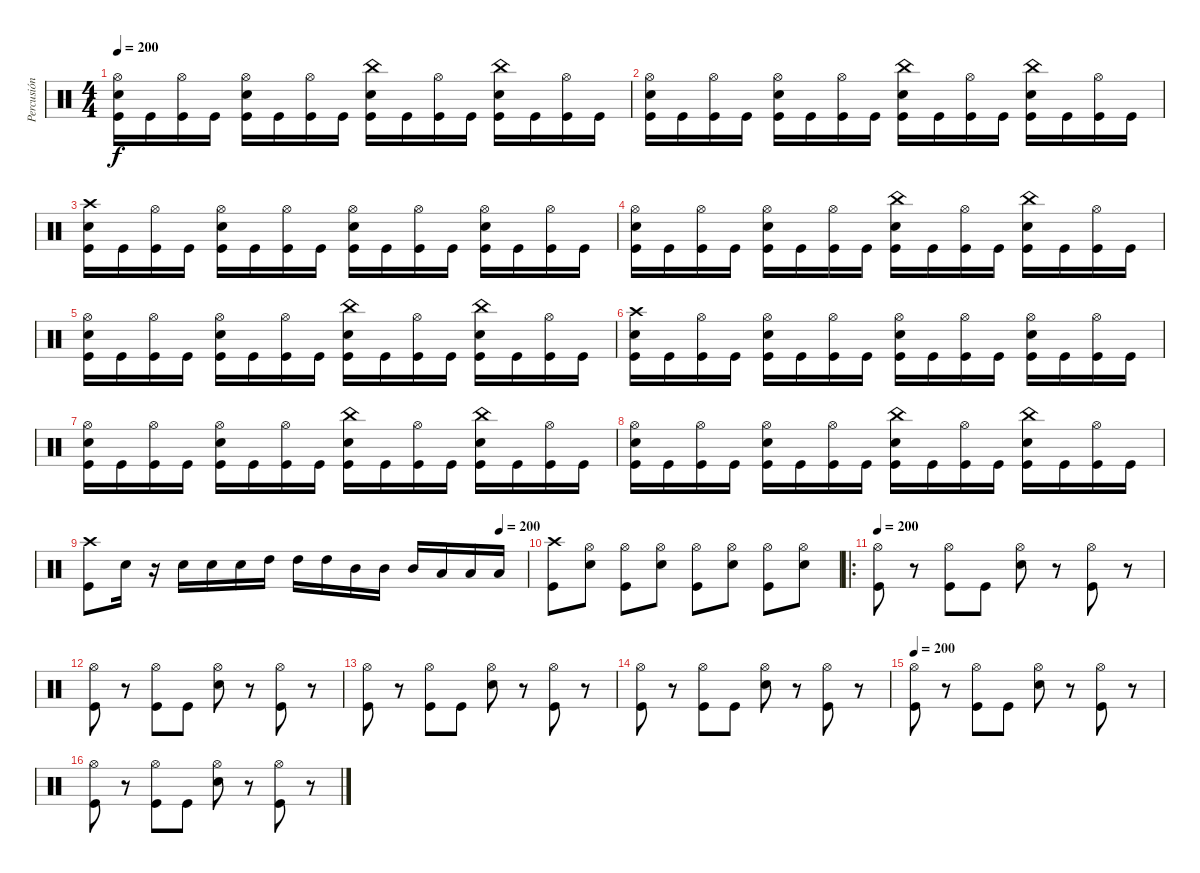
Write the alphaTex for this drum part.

\track ("Percusión" "Percusión") {instrument percussion}
\staff {score}
\articulation defaults
\ts (4 4)
\tempo 200
\clef neutral
\ks c
("Hi-Hat (open)" "Snare (hit) 2" "Kick (hit)").16{dy f} "Kick (hit)".16 ("Hi-Hat (open)" "Kick (hit)").16 "Kick (hit)".16 ("Hi-Hat (open)" "Snare (hit) 2" "Kick (hit)").16 "Kick (hit)".16 ("Hi-Hat (open)" "Kick (hit)").16 "Kick (hit)".16 ("China (hit)" "Snare (hit) 2" "Kick (hit)").16 "Kick (hit)".16 ("Hi-Hat (open)" "Kick (hit)").16 "Kick (hit)".16 ("China (hit)" "Snare (hit) 2" "Kick (hit)").16 "Kick (hit)".16 ("Hi-Hat (open)" "Kick (hit)").16 "Kick (hit)".16 |
("Hi-Hat (open)" "Snare (hit) 2" "Kick (hit)").16 "Kick (hit)".16 ("Hi-Hat (open)" "Kick (hit)").16 "Kick (hit)".16 ("Hi-Hat (open)" "Snare (hit) 2" "Kick (hit)").16 "Kick (hit)".16 ("Hi-Hat (open)" "Kick (hit)").16 "Kick (hit)".16 ("China (hit)" "Snare (hit) 2" "Kick (hit)").16 "Kick (hit)".16 ("Hi-Hat (open)" "Kick (hit)").16 "Kick (hit)".16 ("China (hit)" "Snare (hit) 2" "Kick (hit)").16 "Kick (hit)".16 ("Hi-Hat (open)" "Kick (hit)").16 "Kick (hit)".16 |
("Crash high (hit)" "Snare (hit) 2" "Kick (hit)").16 "Kick (hit)".16 ("Hi-Hat (open)" "Kick (hit)").16 "Kick (hit)".16 ("Hi-Hat (open)" "Snare (hit) 2" "Kick (hit)").16 "Kick (hit)".16 ("Hi-Hat (open)" "Kick (hit)").16 "Kick (hit)".16 ("Hi-Hat (open)" "Snare (hit) 2" "Kick (hit)").16 "Kick (hit)".16 ("Hi-Hat (open)" "Kick (hit)").16 "Kick (hit)".16 ("Hi-Hat (open)" "Snare (hit) 2" "Kick (hit)").16 "Kick (hit)".16 ("Hi-Hat (open)" "Kick (hit)").16 "Kick (hit)".16 |
("Hi-Hat (open)" "Snare (hit) 2" "Kick (hit)").16 "Kick (hit)".16 ("Hi-Hat (open)" "Kick (hit)").16 "Kick (hit)".16 ("Hi-Hat (open)" "Snare (hit) 2" "Kick (hit)").16 "Kick (hit)".16 ("Hi-Hat (open)" "Kick (hit)").16 "Kick (hit)".16 ("China (hit)" "Snare (hit) 2" "Kick (hit)").16 "Kick (hit)".16 ("Hi-Hat (open)" "Kick (hit)").16 "Kick (hit)".16 ("China (hit)" "Snare (hit) 2" "Kick (hit)").16 "Kick (hit)".16 ("Hi-Hat (open)" "Kick (hit)").16 "Kick (hit)".16 |
("Hi-Hat (open)" "Snare (hit) 2" "Kick (hit)").16 "Kick (hit)".16 ("Hi-Hat (open)" "Kick (hit)").16 "Kick (hit)".16 ("Hi-Hat (open)" "Snare (hit) 2" "Kick (hit)").16 "Kick (hit)".16 ("Hi-Hat (open)" "Kick (hit)").16 "Kick (hit)".16 ("China (hit)" "Snare (hit) 2" "Kick (hit)").16 "Kick (hit)".16 ("Hi-Hat (open)" "Kick (hit)").16 "Kick (hit)".16 ("China (hit)" "Snare (hit) 2" "Kick (hit)").16 "Kick (hit)".16 ("Hi-Hat (open)" "Kick (hit)").16 "Kick (hit)".16 |
("Crash high (hit)" "Snare (hit) 2" "Kick (hit)").16 "Kick (hit)".16 ("Hi-Hat (open)" "Kick (hit)").16 "Kick (hit)".16 ("Hi-Hat (open)" "Snare (hit) 2" "Kick (hit)").16 "Kick (hit)".16 ("Hi-Hat (open)" "Kick (hit)").16 "Kick (hit)".16 ("Hi-Hat (open)" "Snare (hit) 2" "Kick (hit)").16 "Kick (hit)".16 ("Hi-Hat (open)" "Kick (hit)").16 "Kick (hit)".16 ("Hi-Hat (open)" "Snare (hit) 2" "Kick (hit)").16 "Kick (hit)".16 ("Hi-Hat (open)" "Kick (hit)").16 "Kick (hit)".16 |
("Hi-Hat (open)" "Snare (hit) 2" "Kick (hit)").16 "Kick (hit)".16 ("Hi-Hat (open)" "Kick (hit)").16 "Kick (hit)".16 ("Hi-Hat (open)" "Snare (hit) 2" "Kick (hit)").16 "Kick (hit)".16 ("Hi-Hat (open)" "Kick (hit)").16 "Kick (hit)".16 ("China (hit)" "Snare (hit) 2" "Kick (hit)").16 "Kick (hit)".16 ("Hi-Hat (open)" "Kick (hit)").16 "Kick (hit)".16 ("China (hit)" "Snare (hit) 2" "Kick (hit)").16 "Kick (hit)".16 ("Hi-Hat (open)" "Kick (hit)").16 "Kick (hit)".16 |
("Hi-Hat (open)" "Snare (hit) 2" "Kick (hit)").16 "Kick (hit)".16 ("Hi-Hat (open)" "Kick (hit)").16 "Kick (hit)".16 ("Hi-Hat (open)" "Snare (hit) 2" "Kick (hit)").16 "Kick (hit)".16 ("Hi-Hat (open)" "Kick (hit)").16 "Kick (hit)".16 ("China (hit)" "Snare (hit) 2" "Kick (hit)").16 "Kick (hit)".16 ("Hi-Hat (open)" "Kick (hit)").16 "Kick (hit)".16 ("China (hit)" "Snare (hit) 2" "Kick (hit)").16 "Kick (hit)".16 ("Hi-Hat (open)" "Kick (hit)").16 "Kick (hit)".16 |
\tempo (200 0.9375)
("Crash high (hit)" "Kick (hit)").8 "Snare (hit) 2".16 r.16 "Snare (hit) 2".16 "Snare (hit) 2".16 "Snare (hit) 2".16 "High Tom (hit)".16 "High Tom (hit)".16 "High Tom (hit)".16 "Mid Tom (hit)".16 "Mid Tom (hit)".16 "Mid Tom (hit)".16 "Low Tom (hit)".16 "Low Tom (hit)".16 "Low Tom (hit)".16 |
("Crash high (hit)" "Kick (hit)").8 ("Hi-Hat (open)" "Snare (hit) 2").8 ("Hi-Hat (open)" "Kick (hit)").8 ("Hi-Hat (open)" "Snare (hit) 2").8 ("Hi-Hat (open)" "Kick (hit)").8 ("Hi-Hat (open)" "Snare (hit) 2").8 ("Hi-Hat (open)" "Kick (hit)").8 ("Hi-Hat (open)" "Snare (hit) 2").8 |
\ro
\tempo 200
("Hi-Hat (open)" "Kick (hit)").8 r.8 ("Hi-Hat (open)" "Kick (hit)").8 "Kick (hit)".8 ("Hi-Hat (open)" "Snare (hit) 2").8 r.8 ("Hi-Hat (open)" "Kick (hit)").8 r.8 |
("Hi-Hat (open)" "Kick (hit)").8 r.8 ("Hi-Hat (open)" "Kick (hit)").8 "Kick (hit)".8 ("Hi-Hat (open)" "Snare (hit) 2").8 r.8 ("Hi-Hat (open)" "Kick (hit)").8 r.8 |
("Hi-Hat (open)" "Kick (hit)").8 r.8 ("Hi-Hat (open)" "Kick (hit)").8 "Kick (hit)".8 ("Hi-Hat (open)" "Snare (hit) 2").8 r.8 ("Hi-Hat (open)" "Kick (hit)").8 r.8 |
("Hi-Hat (open)" "Kick (hit)").8 r.8 ("Hi-Hat (open)" "Kick (hit)").8 "Kick (hit)".8 ("Hi-Hat (open)" "Snare (hit) 2").8 r.8 ("Hi-Hat (open)" "Kick (hit)").8 r.8 |
\tempo 200
("Hi-Hat (open)" "Kick (hit)").8 r.8 ("Hi-Hat (open)" "Kick (hit)").8 "Kick (hit)".8 ("Hi-Hat (open)" "Snare (hit) 2").8 r.8 ("Hi-Hat (open)" "Kick (hit)").8 r.8 |
("Hi-Hat (open)" "Kick (hit)").8 r.8 ("Hi-Hat (open)" "Kick (hit)").8 "Kick (hit)".8 ("Hi-Hat (open)" "Snare (hit) 2").8 r.8 ("Hi-Hat (open)" "Kick (hit)").8 r.8
